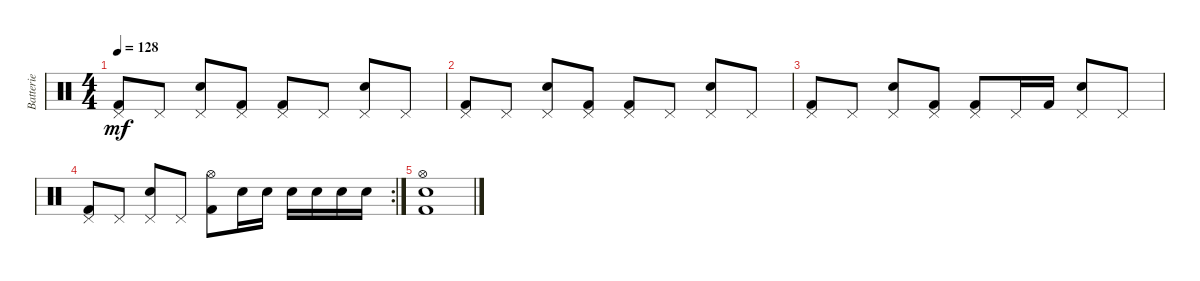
\track ("Batterie" "Batterie") {instrument percussion}
\staff {score}
\articulation defaults
\ts (4 4)
\tempo 128
\clef neutral
\ks c
("Pedal Hi-Hat (hit)" "Kick (hit) 2").8{dy mf} "Pedal Hi-Hat (hit)".8 ("Pedal Hi-Hat (hit)" "Snare (hit) 2").8 ("Pedal Hi-Hat (hit)" "Kick (hit) 2").8 ("Pedal Hi-Hat (hit)" "Kick (hit) 2").8 "Pedal Hi-Hat (hit)".8 ("Pedal Hi-Hat (hit)" "Snare (hit) 2").8 "Pedal Hi-Hat (hit)".8 |
("Pedal Hi-Hat (hit)" "Kick (hit) 2").8 "Pedal Hi-Hat (hit)".8 ("Pedal Hi-Hat (hit)" "Snare (hit) 2").8 ("Pedal Hi-Hat (hit)" "Kick (hit) 2").8 ("Pedal Hi-Hat (hit)" "Kick (hit) 2").8 "Pedal Hi-Hat (hit)".8 ("Pedal Hi-Hat (hit)" "Snare (hit) 2").8 "Pedal Hi-Hat (hit)".8 |
("Pedal Hi-Hat (hit)" "Kick (hit) 2").8 "Pedal Hi-Hat (hit)".8 ("Pedal Hi-Hat (hit)" "Snare (hit) 2").8 ("Pedal Hi-Hat (hit)" "Kick (hit) 2").8 ("Pedal Hi-Hat (hit)" "Kick (hit) 2").8 "Pedal Hi-Hat (hit)".16 "Kick (hit) 2".16 ("Pedal Hi-Hat (hit)" "Snare (hit) 2").8 "Pedal Hi-Hat (hit)".8 |
\rc 2
("Pedal Hi-Hat (hit)" "Kick (hit) 2").8 "Pedal Hi-Hat (hit)".8 ("Pedal Hi-Hat (hit)" "Snare (hit) 2").8 "Pedal Hi-Hat (hit)".8 ("Hi-Hat (open)" "Kick (hit) 2").8 "Snare (hit) 2".16 "Snare (hit) 2".16 "Snare (hit) 2".16 "Snare (hit) 2".16 "Snare (hit) 2".16 "Snare (hit) 2".16 |
("Hi-Hat (open)" "Snare (hit) 2" "Kick (hit) 2").1
